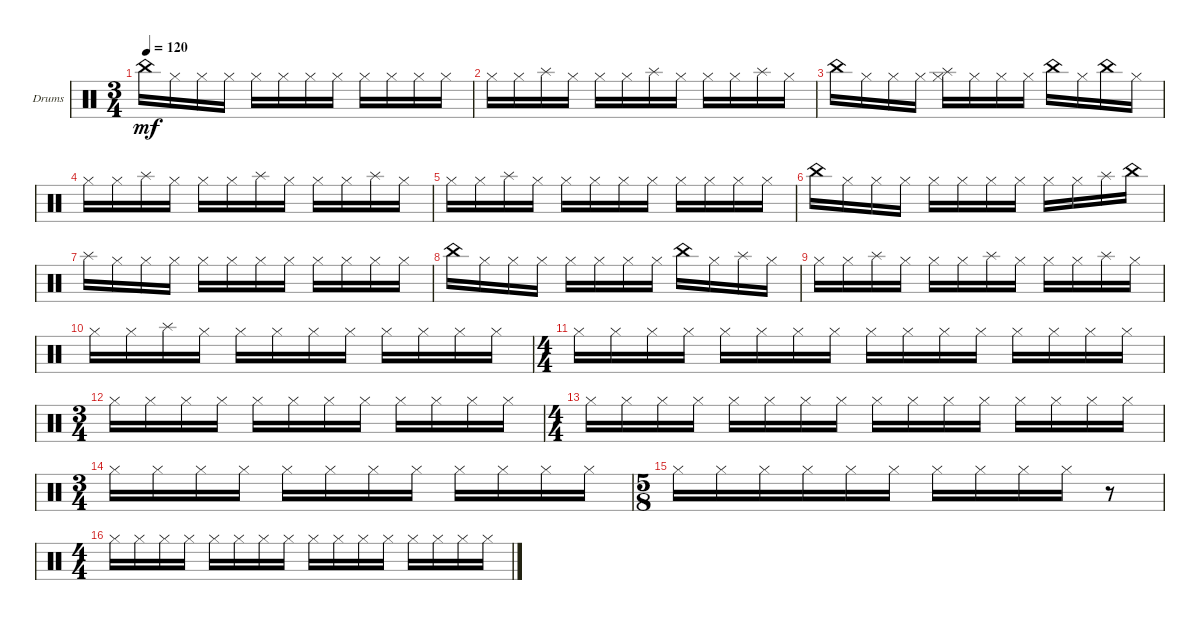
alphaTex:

\bracketExtendMode groupsimilarinstruments
\firstSystemTrackNameOrientation horizontal
\otherSystemsTrackNameOrientation horizontal
\track ("Drumkit" "Drums") {multiBarRest instrument percussion}
\staff {score}
\articulation defaults
\ts (3 4)
\tempo 120
\clef neutral
\ks c "China (hit)".16{dy mf} "Hi-Hat (closed)".16 "Hi-Hat (closed)".16 "Hi-Hat (closed)".16 "Hi-Hat (closed)".16 "Hi-Hat (closed)".16 "Hi-Hat (closed)".16 "Hi-Hat (closed)".16 "Hi-Hat (closed)".16 "Hi-Hat (closed)".16 "Hi-Hat (closed)".16 "Hi-Hat (closed)".16
|
"Hi-Hat (closed)".16 "Hi-Hat (closed)".16 "Splash (hit)".16 "Hi-Hat (closed)".16 "Hi-Hat (closed)".16 "Hi-Hat (closed)".16 "Splash (hit)".16 "Hi-Hat (closed)".16 "Hi-Hat (closed)".16 "Hi-Hat (closed)".16 "Splash (hit)".16 "Hi-Hat (closed)".16 |
"China (hit)".16 "Hi-Hat (closed)".16 "Hi-Hat (closed)".16 "Hi-Hat (closed)".16 ("Hi-Hat (closed)" "Splash (hit)").16 "Hi-Hat (closed)".16 "Hi-Hat (closed)".16 "Hi-Hat (closed)".16 "China (hit)".16 "Hi-Hat (closed)".16 "China (hit)".16 "Hi-Hat (closed)".16 |
"Hi-Hat (closed)".16 "Hi-Hat (closed)".16 "Splash (hit)".16 "Hi-Hat (closed)".16 "Hi-Hat (closed)".16 "Hi-Hat (closed)".16 "Splash (hit)".16 "Hi-Hat (closed)".16 "Hi-Hat (closed)".16 "Hi-Hat (closed)".16 "Splash (hit)".16 "Hi-Hat (closed)".16 |
"Hi-Hat (closed)".16 "Hi-Hat (closed)".16 "Splash (hit)".16 "Hi-Hat (closed)".16 "Hi-Hat (closed)".16 "Hi-Hat (closed)".16 "Hi-Hat (closed)".16 "Hi-Hat (closed)".16 "Hi-Hat (closed)".16 "Hi-Hat (closed)".16 "Hi-Hat (closed)".16 "Hi-Hat (closed)".16 |
"China (hit)".16 "Hi-Hat (closed)".16 "Hi-Hat (closed)".16 "Hi-Hat (closed)".16 "Hi-Hat (closed)".16 "Hi-Hat (closed)".16 "Hi-Hat (closed)".16 "Hi-Hat (closed)".16 "Hi-Hat (closed)".16 "Hi-Hat (closed)".16 "Splash (hit)".16 "China (hit)".16 |
"Splash (hit)".16 "Hi-Hat (closed)".16 "Hi-Hat (closed)".16 "Hi-Hat (closed)".16 "Hi-Hat (closed)".16 "Hi-Hat (closed)".16 "Hi-Hat (closed)".16 "Hi-Hat (closed)".16 "Hi-Hat (closed)".16 "Hi-Hat (closed)".16 "Hi-Hat (closed)".16 "Hi-Hat (closed)".16 |
"China (hit)".16 "Hi-Hat (closed)".16 "Hi-Hat (closed)".16 "Hi-Hat (closed)".16 "Hi-Hat (closed)".16 "Hi-Hat (closed)".16 "Hi-Hat (closed)".16 "Hi-Hat (closed)".16 "China (hit)".16 "Hi-Hat (closed)".16 "Splash (hit)".16 "Hi-Hat (closed)".16 |
"Hi-Hat (closed)".16 "Hi-Hat (closed)".16 "Splash (hit)".16 "Hi-Hat (closed)".16 "Hi-Hat (closed)".16 "Hi-Hat (closed)".16 "Splash (hit)".16 "Hi-Hat (closed)".16 "Hi-Hat (closed)".16 "Hi-Hat (closed)".16 "Splash (hit)".16 "Hi-Hat (closed)".16 |
"Hi-Hat (closed)".16 "Hi-Hat (closed)".16 "Splash (hit)".16 "Hi-Hat (closed)".16 "Hi-Hat (closed)".16 "Hi-Hat (closed)".16 "Hi-Hat (closed)".16 "Hi-Hat (closed)".16 "Hi-Hat (closed)".16 "Hi-Hat (closed)".16 "Hi-Hat (closed)".16 "Hi-Hat (closed)".16 |
\ts (4 4)
"Hi-Hat (closed)".16 "Hi-Hat (closed)".16 "Hi-Hat (closed)".16 "Hi-Hat (closed)".16 "Hi-Hat (closed)".16 "Hi-Hat (closed)".16 "Hi-Hat (closed)".16 "Hi-Hat (closed)".16 "Hi-Hat (closed)".16 "Hi-Hat (closed)".16 "Hi-Hat (closed)".16 "Hi-Hat (closed)".16 "Hi-Hat (closed)".16 "Hi-Hat (closed)".16 "Hi-Hat (closed)".16 "Hi-Hat (closed)".16 |
\ts (3 4)
"Hi-Hat (closed)".16 "Hi-Hat (closed)".16 "Hi-Hat (closed)".16 "Hi-Hat (closed)".16 "Hi-Hat (closed)".16 "Hi-Hat (closed)".16 "Hi-Hat (closed)".16 "Hi-Hat (closed)".16 "Hi-Hat (closed)".16 "Hi-Hat (closed)".16 "Hi-Hat (closed)".16 "Hi-Hat (closed)".16 |
\ts (4 4)
"Hi-Hat (closed)".16 "Hi-Hat (closed)".16 "Hi-Hat (closed)".16 "Hi-Hat (closed)".16 "Hi-Hat (closed)".16 "Hi-Hat (closed)".16 "Hi-Hat (closed)".16 "Hi-Hat (closed)".16 "Hi-Hat (closed)".16 "Hi-Hat (closed)".16 "Hi-Hat (closed)".16 "Hi-Hat (closed)".16 "Hi-Hat (closed)".16 "Hi-Hat (closed)".16 "Hi-Hat (closed)".16 "Hi-Hat (closed)".16 |
\ts (3 4)
"Hi-Hat (closed)".16 "Hi-Hat (closed)".16 "Hi-Hat (closed)".16 "Hi-Hat (closed)".16 "Hi-Hat (closed)".16 "Hi-Hat (closed)".16 "Hi-Hat (closed)".16 "Hi-Hat (closed)".16 "Hi-Hat (closed)".16 "Hi-Hat (closed)".16 "Hi-Hat (closed)".16 "Hi-Hat (closed)".16 |
\ts (5 8)
"Hi-Hat (closed)".16 "Hi-Hat (closed)".16 "Hi-Hat (closed)".16 "Hi-Hat (closed)".16 "Hi-Hat (closed)".16 "Hi-Hat (closed)".16 "Hi-Hat (closed)".16 "Hi-Hat (closed)".16 "Hi-Hat (closed)".16 "Hi-Hat (closed)".16 r.8 |
\ts (4 4)
"Hi-Hat (closed)".16 "Hi-Hat (closed)".16 "Hi-Hat (closed)".16 "Hi-Hat (closed)".16 "Hi-Hat (closed)".16 "Hi-Hat (closed)".16 "Hi-Hat (closed)".16 "Hi-Hat (closed)".16 "Hi-Hat (closed)".16 "Hi-Hat (closed)".16 "Hi-Hat (closed)".16 "Hi-Hat (closed)".16 "Hi-Hat (closed)".16 "Hi-Hat (closed)".16 "Hi-Hat (closed)".16 "Hi-Hat (closed)".16
